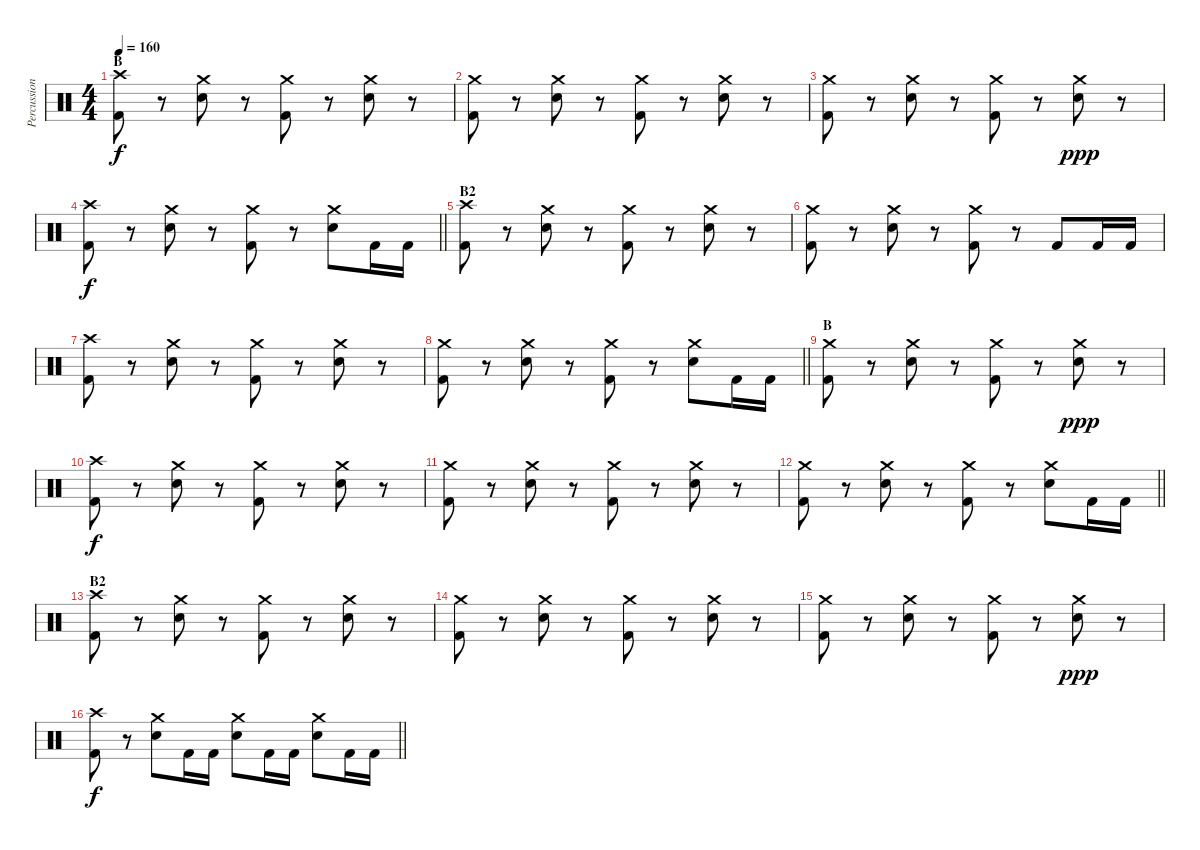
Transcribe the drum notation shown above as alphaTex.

\track ("Percussion" "Percussion") {instrument percussion}
\staff {score}
\articulation defaults
\ts (4 4)
\section ("" "B")
\tempo 160
\clef neutral
\ks c
("Crash high (hit)" "Kick (hit) 2").8{dy f} r.8 ("Crash medium (hit)" "Electric Snare (hit)").8 r.8 ("Crash medium (hit)" "Kick (hit) 2").8 r.8 ("Crash medium (hit)" "Electric Snare (hit)").8 r.8 |
("Crash medium (hit)" "Kick (hit) 2").8 r.8 ("Crash medium (hit)" "Electric Snare (hit)").8 r.8 ("Crash medium (hit)" "Kick (hit) 2").8 r.8 ("Crash medium (hit)" "Electric Snare (hit)").8 r.8 |
("Crash medium (hit)" "Kick (hit) 2").8 r.8 ("Crash medium (hit)" "Electric Snare (hit)").8 r.8 ("Crash medium (hit)" "Kick (hit) 2").8 r.8 ("Crash medium (hit)" "Electric Snare (hit)").8{dy ppp} r.8 |
\barLineRight lightlight
("Crash high (hit)" "Kick (hit) 2").8{dy f} r.8 ("Crash medium (hit)" "Electric Snare (hit)").8 r.8 ("Crash medium (hit)" "Kick (hit) 2").8 r.8 ("Crash medium (hit)" "Electric Snare (hit)").8 "Kick (hit) 2".16 "Kick (hit) 2".16 |
\section ("" "B2")
("Crash high (hit)" "Kick (hit) 2").8 r.8 ("Crash medium (hit)" "Electric Snare (hit)").8 r.8 ("Crash medium (hit)" "Kick (hit) 2").8 r.8 ("Crash medium (hit)" "Electric Snare (hit)").8 r.8 |
("Crash medium (hit)" "Kick (hit) 2").8 r.8 ("Crash medium (hit)" "Electric Snare (hit)").8 r.8 ("Crash medium (hit)" "Kick (hit) 2").8 r.8 "Kick (hit) 2".8 "Kick (hit) 2".16 "Kick (hit) 2".16 |
("Crash high (hit)" "Kick (hit) 2").8 r.8 ("Crash medium (hit)" "Electric Snare (hit)").8 r.8 ("Crash medium (hit)" "Kick (hit) 2").8 r.8 ("Crash medium (hit)" "Electric Snare (hit)").8 r.8 |
\barLineRight lightlight
("Crash medium (hit)" "Kick (hit) 2").8 r.8 ("Crash medium (hit)" "Electric Snare (hit)").8 r.8 ("Crash medium (hit)" "Kick (hit) 2").8 r.8 ("Crash medium (hit)" "Electric Snare (hit)").8 "Kick (hit) 2".16 "Kick (hit) 2".16 |
\section ("" "B")
("Crash medium (hit)" "Kick (hit) 2").8 r.8 ("Crash medium (hit)" "Electric Snare (hit)").8 r.8 ("Crash medium (hit)" "Kick (hit) 2").8 r.8 ("Crash medium (hit)" "Electric Snare (hit)").8{dy ppp} r.8 |
("Crash high (hit)" "Kick (hit) 2").8{dy f} r.8 ("Crash medium (hit)" "Electric Snare (hit)").8 r.8 ("Crash medium (hit)" "Kick (hit) 2").8 r.8 ("Crash medium (hit)" "Electric Snare (hit)").8 r.8 |
("Crash medium (hit)" "Kick (hit) 2").8 r.8 ("Crash medium (hit)" "Electric Snare (hit)").8 r.8 ("Crash medium (hit)" "Kick (hit) 2").8 r.8 ("Crash medium (hit)" "Electric Snare (hit)").8 r.8 |
\barLineRight lightlight
("Crash medium (hit)" "Kick (hit) 2").8 r.8 ("Crash medium (hit)" "Electric Snare (hit)").8 r.8 ("Crash medium (hit)" "Kick (hit) 2").8 r.8 ("Crash medium (hit)" "Electric Snare (hit)").8 "Kick (hit) 2".16 "Kick (hit) 2".16 |
\section ("" "B2")
("Crash high (hit)" "Kick (hit) 2").8 r.8 ("Crash medium (hit)" "Electric Snare (hit)").8 r.8 ("Crash medium (hit)" "Kick (hit) 2").8 r.8 ("Crash medium (hit)" "Electric Snare (hit)").8 r.8 |
("Crash medium (hit)" "Kick (hit) 2").8 r.8 ("Crash medium (hit)" "Electric Snare (hit)").8 r.8 ("Crash medium (hit)" "Kick (hit) 2").8 r.8 ("Crash medium (hit)" "Electric Snare (hit)").8 r.8 |
("Crash medium (hit)" "Kick (hit) 2").8 r.8 ("Crash medium (hit)" "Electric Snare (hit)").8 r.8 ("Crash medium (hit)" "Kick (hit) 2").8 r.8 ("Crash medium (hit)" "Electric Snare (hit)").8{dy ppp} r.8 |
\barLineRight lightlight
("Crash high (hit)" "Kick (hit) 2").8{dy f} r.8 ("Crash medium (hit)" "Electric Snare (hit)").8 "Kick (hit) 2".16 "Kick (hit) 2".16 ("Crash medium (hit)" "Electric Snare (hit)").8 "Kick (hit) 2".16 "Kick (hit) 2".16 ("Crash medium (hit)" "Electric Snare (hit)").8 "Kick (hit) 2".16 "Kick (hit) 2".16
